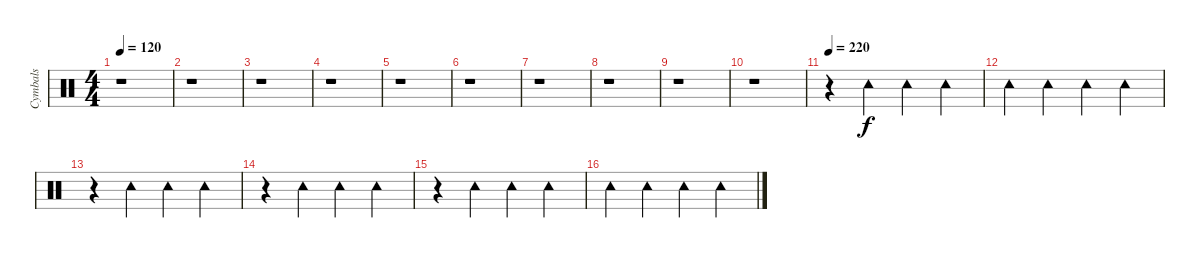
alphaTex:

\track ("Cymbals" "Cymbals") {instrument percussion}
\staff {score}
\articulation defaults
\ts (4 4)
\tempo 120
\clef neutral
\ks c
r.1{dy f} |
r.1 |
r.1 |
r.1 |
r.1 |
r.1 |
r.1 |
r.1 |
r.1 |
r.1 |
\tempo 220
r.4 "Tambourine (hit)".4 "Tambourine (hit)".4 "Tambourine (hit)".4 |
"Tambourine (hit)".4 "Tambourine (hit)".4 "Tambourine (hit)".4 "Tambourine (hit)".4 |
r.4 "Tambourine (hit)".4 "Tambourine (hit)".4 "Tambourine (hit)".4 |
r.4 "Tambourine (hit)".4 "Tambourine (hit)".4 "Tambourine (hit)".4 |
r.4 "Tambourine (hit)".4 "Tambourine (hit)".4 "Tambourine (hit)".4 |
"Tambourine (hit)".4 "Tambourine (hit)".4 "Tambourine (hit)".4 "Tambourine (hit)".4
